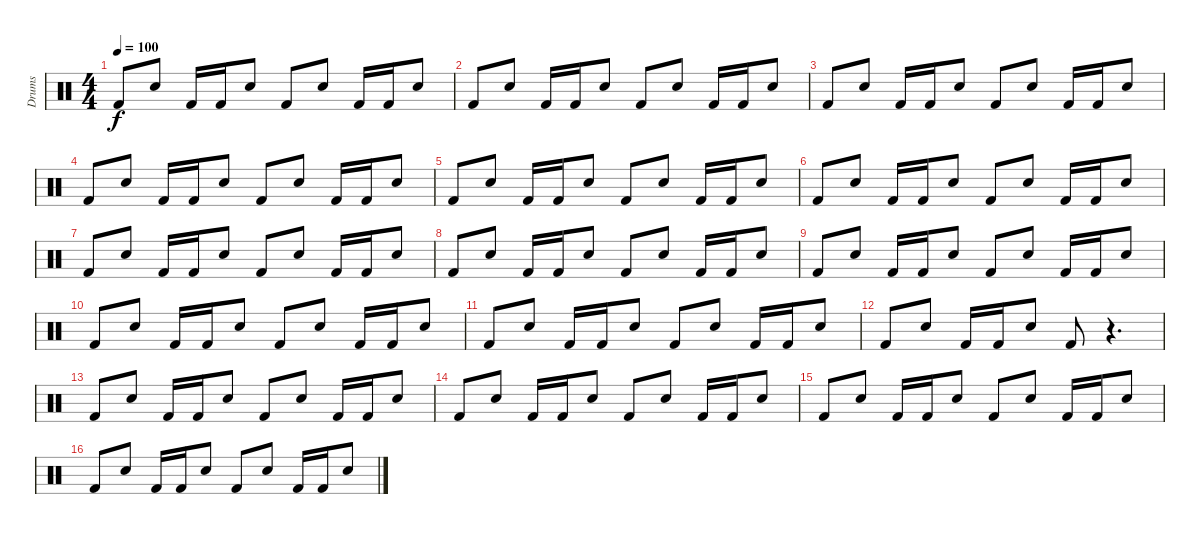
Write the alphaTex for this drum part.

\track ("Drums" "Drums") {instrument percussion}
\staff {score}
\articulation defaults
\ts (4 4)
\tempo 100
\clef neutral
\ks c "Kick (hit) 2".8{dy f} "Snare (hit) 2".8 "Kick (hit) 2".16 "Kick (hit) 2".16 "Snare (hit) 2".8 "Kick (hit) 2".8 "Snare (hit) 2".8 "Kick (hit) 2".16 "Kick (hit) 2".16 "Snare (hit) 2".8
|
"Kick (hit) 2".8 "Snare (hit) 2".8 "Kick (hit) 2".16 "Kick (hit) 2".16 "Snare (hit) 2".8 "Kick (hit) 2".8 "Snare (hit) 2".8 "Kick (hit) 2".16 "Kick (hit) 2".16 "Snare (hit) 2".8 |
"Kick (hit) 2".8 "Snare (hit) 2".8 "Kick (hit) 2".16 "Kick (hit) 2".16 "Snare (hit) 2".8 "Kick (hit) 2".8 "Snare (hit) 2".8 "Kick (hit) 2".16 "Kick (hit) 2".16 "Snare (hit) 2".8 |
"Kick (hit) 2".8 "Snare (hit) 2".8 "Kick (hit) 2".16 "Kick (hit) 2".16 "Snare (hit) 2".8 "Kick (hit) 2".8 "Snare (hit) 2".8 "Kick (hit) 2".16 "Kick (hit) 2".16 "Snare (hit) 2".8 |
"Kick (hit) 2".8 "Snare (hit) 2".8 "Kick (hit) 2".16 "Kick (hit) 2".16 "Snare (hit) 2".8 "Kick (hit) 2".8 "Snare (hit) 2".8 "Kick (hit) 2".16 "Kick (hit) 2".16 "Snare (hit) 2".8 |
"Kick (hit) 2".8 "Snare (hit) 2".8 "Kick (hit) 2".16 "Kick (hit) 2".16 "Snare (hit) 2".8 "Kick (hit) 2".8 "Snare (hit) 2".8 "Kick (hit) 2".16 "Kick (hit) 2".16 "Snare (hit) 2".8 |
"Kick (hit) 2".8 "Snare (hit) 2".8 "Kick (hit) 2".16 "Kick (hit) 2".16 "Snare (hit) 2".8 "Kick (hit) 2".8 "Snare (hit) 2".8 "Kick (hit) 2".16 "Kick (hit) 2".16 "Snare (hit) 2".8 |
"Kick (hit) 2".8 "Snare (hit) 2".8 "Kick (hit) 2".16 "Kick (hit) 2".16 "Snare (hit) 2".8 "Kick (hit) 2".8 "Snare (hit) 2".8 "Kick (hit) 2".16 "Kick (hit) 2".16 "Snare (hit) 2".8 |
"Kick (hit) 2".8 "Snare (hit) 2".8 "Kick (hit) 2".16 "Kick (hit) 2".16 "Snare (hit) 2".8 "Kick (hit) 2".8 "Snare (hit) 2".8 "Kick (hit) 2".16 "Kick (hit) 2".16 "Snare (hit) 2".8 |
"Kick (hit) 2".8 "Snare (hit) 2".8 "Kick (hit) 2".16 "Kick (hit) 2".16 "Snare (hit) 2".8 "Kick (hit) 2".8 "Snare (hit) 2".8 "Kick (hit) 2".16 "Kick (hit) 2".16 "Snare (hit) 2".8 |
"Kick (hit) 2".8 "Snare (hit) 2".8 "Kick (hit) 2".16 "Kick (hit) 2".16 "Snare (hit) 2".8 "Kick (hit) 2".8 "Snare (hit) 2".8 "Kick (hit) 2".16 "Kick (hit) 2".16 "Snare (hit) 2".8 |
"Kick (hit) 2".8 "Snare (hit) 2".8 "Kick (hit) 2".16 "Kick (hit) 2".16 "Snare (hit) 2".8 "Kick (hit) 2".8 r.4{d} |
"Kick (hit) 2".8 "Snare (hit) 2".8 "Kick (hit) 2".16 "Kick (hit) 2".16 "Snare (hit) 2".8 "Kick (hit) 2".8 "Snare (hit) 2".8 "Kick (hit) 2".16 "Kick (hit) 2".16 "Snare (hit) 2".8 |
"Kick (hit) 2".8 "Snare (hit) 2".8 "Kick (hit) 2".16 "Kick (hit) 2".16 "Snare (hit) 2".8 "Kick (hit) 2".8 "Snare (hit) 2".8 "Kick (hit) 2".16 "Kick (hit) 2".16 "Snare (hit) 2".8 |
"Kick (hit) 2".8 "Snare (hit) 2".8 "Kick (hit) 2".16 "Kick (hit) 2".16 "Snare (hit) 2".8 "Kick (hit) 2".8 "Snare (hit) 2".8 "Kick (hit) 2".16 "Kick (hit) 2".16 "Snare (hit) 2".8 |
"Kick (hit) 2".8 "Snare (hit) 2".8 "Kick (hit) 2".16 "Kick (hit) 2".16 "Snare (hit) 2".8 "Kick (hit) 2".8 "Snare (hit) 2".8 "Kick (hit) 2".16 "Kick (hit) 2".16 "Snare (hit) 2".8
